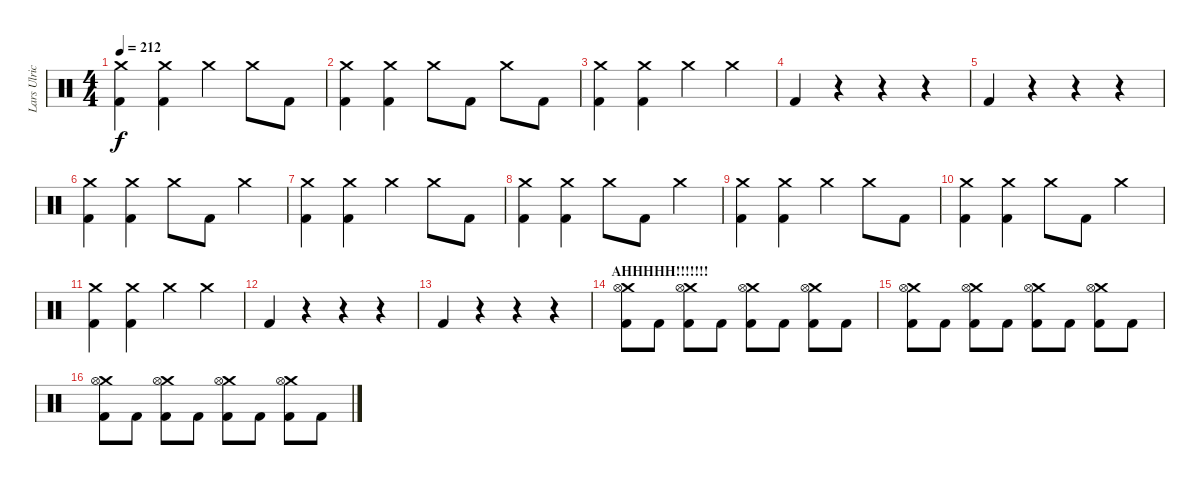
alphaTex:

\track ("Lars Ulrich" "Lars Ulric") {instrument percussion}
\staff {score}
\articulation defaults
\ts (4 4)
\tempo 212
\clef neutral
\ks c
("Crash medium (hit)" "Kick (hit) 2").4{dy f} ("Crash medium (hit)" "Kick (hit) 2").4 "Crash medium (hit)".4 "Crash medium (hit)".8 "Kick (hit) 2".8 |
("Crash medium (hit)" "Kick (hit) 2").4 ("Crash medium (hit)" "Kick (hit) 2").4 "Crash medium (hit)".8 "Kick (hit) 2".8 "Crash medium (hit)".8 "Kick (hit) 2".8 |
("Crash medium (hit)" "Kick (hit) 2").4 ("Crash medium (hit)" "Kick (hit) 2").4 "Crash medium (hit)".4 "Crash medium (hit)".4 |
"Kick (hit) 2".4 r.4 r.4 r.4 |
"Kick (hit) 2".4 r.4 r.4 r.4 |
("Crash medium (hit)" "Kick (hit) 2").4 ("Crash medium (hit)" "Kick (hit) 2").4 "Crash medium (hit)".8 "Kick (hit) 2".8 "Crash medium (hit)".4 |
("Crash medium (hit)" "Kick (hit) 2").4 ("Crash medium (hit)" "Kick (hit) 2").4 "Crash medium (hit)".4 "Crash medium (hit)".8 "Kick (hit) 2".8 |
("Crash medium (hit)" "Kick (hit) 2").4 ("Crash medium (hit)" "Kick (hit) 2").4 "Crash medium (hit)".8 "Kick (hit) 2".8 "Crash medium (hit)".4 |
("Crash medium (hit)" "Kick (hit) 2").4 ("Crash medium (hit)" "Kick (hit) 2").4 "Crash medium (hit)".4 "Crash medium (hit)".8 "Kick (hit) 2".8 |
("Crash medium (hit)" "Kick (hit) 2").4 ("Crash medium (hit)" "Kick (hit) 2").4 "Crash medium (hit)".8 "Kick (hit) 2".8 "Crash medium (hit)".4 |
("Crash medium (hit)" "Kick (hit) 2").4 ("Crash medium (hit)" "Kick (hit) 2").4 "Crash medium (hit)".4 "Crash medium (hit)".4 |
"Kick (hit) 2".4 r.4 r.4 r.4 |
"Kick (hit) 2".4 r.4 r.4 r.4 |
\section ("" "AHHHHH!!!!!!!")
("Crash medium (hit)" "Hi-Hat (open)" "Kick (hit) 2").8 "Kick (hit) 2".8 ("Crash medium (hit)" "Hi-Hat (open)" "Kick (hit) 2").8 "Kick (hit) 2".8 ("Crash medium (hit)" "Hi-Hat (open)" "Kick (hit) 2").8 "Kick (hit) 2".8 ("Crash medium (hit)" "Hi-Hat (open)" "Kick (hit) 2").8 "Kick (hit) 2".8 |
("Crash medium (hit)" "Hi-Hat (open)" "Kick (hit) 2").8 "Kick (hit) 2".8 ("Crash medium (hit)" "Hi-Hat (open)" "Kick (hit) 2").8 "Kick (hit) 2".8 ("Crash medium (hit)" "Hi-Hat (open)" "Kick (hit) 2").8 "Kick (hit) 2".8 ("Crash medium (hit)" "Hi-Hat (open)" "Kick (hit) 2").8 "Kick (hit) 2".8 |
("Crash medium (hit)" "Hi-Hat (open)" "Kick (hit) 2").8 "Kick (hit) 2".8 ("Crash medium (hit)" "Hi-Hat (open)" "Kick (hit) 2").8 "Kick (hit) 2".8 ("Crash medium (hit)" "Hi-Hat (open)" "Kick (hit) 2").8 "Kick (hit) 2".8 ("Crash medium (hit)" "Hi-Hat (open)" "Kick (hit) 2").8 "Kick (hit) 2".8
